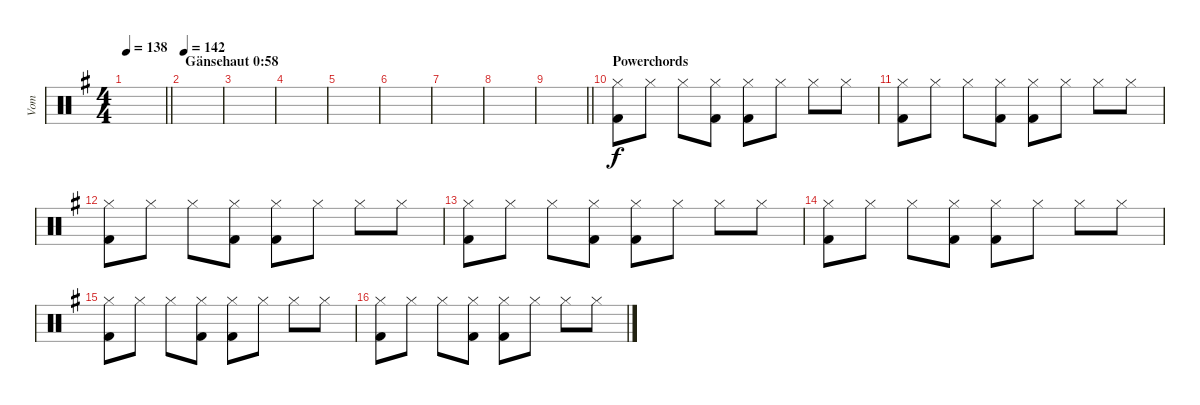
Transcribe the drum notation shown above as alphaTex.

\track ("Vom" "Vom") {instrument percussion}
\staff {score}
\articulation defaults
\ts (4 4)
\tempo 138
\clef neutral
\barLineRight lightlight
\ks g
|
\section ("" "Gänsehaut 0:58")
\tempo 142
|
|
|
|
|
|
|
\barLineRight lightlight
|
\section ("" "Powerchords")
("Hi-Hat (closed)" "Kick (hit) 2").8 "Hi-Hat (closed)".8 "Hi-Hat (closed)".8 ("Hi-Hat (closed)" "Kick (hit) 2").8 ("Hi-Hat (closed)" "Kick (hit) 2").8 "Hi-Hat (closed)".8 "Hi-Hat (closed)".8 "Hi-Hat (closed)".8 |
("Hi-Hat (closed)" "Kick (hit) 2").8 "Hi-Hat (closed)".8 "Hi-Hat (closed)".8 ("Hi-Hat (closed)" "Kick (hit) 2").8 ("Hi-Hat (closed)" "Kick (hit) 2").8 "Hi-Hat (closed)".8 "Hi-Hat (closed)".8 "Hi-Hat (closed)".8 |
("Hi-Hat (closed)" "Kick (hit) 2").8 "Hi-Hat (closed)".8 "Hi-Hat (closed)".8 ("Hi-Hat (closed)" "Kick (hit) 2").8 ("Hi-Hat (closed)" "Kick (hit) 2").8 "Hi-Hat (closed)".8 "Hi-Hat (closed)".8 "Hi-Hat (closed)".8 |
("Hi-Hat (closed)" "Kick (hit) 2").8 "Hi-Hat (closed)".8 "Hi-Hat (closed)".8 ("Hi-Hat (closed)" "Kick (hit) 2").8 ("Hi-Hat (closed)" "Kick (hit) 2").8 "Hi-Hat (closed)".8 "Hi-Hat (closed)".8 "Hi-Hat (closed)".8 |
("Hi-Hat (closed)" "Kick (hit) 2").8 "Hi-Hat (closed)".8 "Hi-Hat (closed)".8 ("Hi-Hat (closed)" "Kick (hit) 2").8 ("Hi-Hat (closed)" "Kick (hit) 2").8 "Hi-Hat (closed)".8 "Hi-Hat (closed)".8 "Hi-Hat (closed)".8 |
("Hi-Hat (closed)" "Kick (hit) 2").8 "Hi-Hat (closed)".8 "Hi-Hat (closed)".8 ("Hi-Hat (closed)" "Kick (hit) 2").8 ("Hi-Hat (closed)" "Kick (hit) 2").8 "Hi-Hat (closed)".8 "Hi-Hat (closed)".8 "Hi-Hat (closed)".8 |
("Hi-Hat (closed)" "Kick (hit) 2").8 "Hi-Hat (closed)".8 "Hi-Hat (closed)".8 ("Hi-Hat (closed)" "Kick (hit) 2").8 ("Hi-Hat (closed)" "Kick (hit) 2").8 "Hi-Hat (closed)".8 "Hi-Hat (closed)".8 "Hi-Hat (closed)".8
